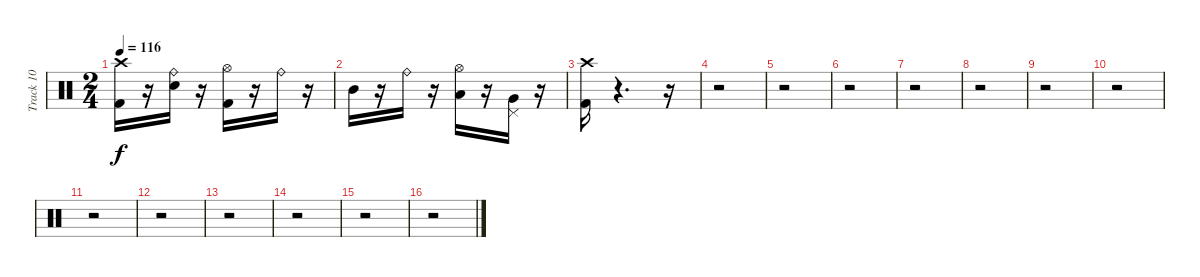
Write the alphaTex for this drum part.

\track ("Track 10" "Track 10") {instrument percussion}
\staff {score}
\articulation defaults
\ts (2 4)
\tempo 116
\clef neutral
\ks c
("Crash high (hit)" "Kick (hit) 2").16{dy f} r.16 ("Ride (bell)" "Electric Snare (hit)").16 r.16 ("Hi-Hat (open)" "Kick (hit) 2").16 r.16 "Ride (bell)".16 r.16 |
"Mid Tom (hit)".16 r.16 "Ride (bell)".16 r.16 ("Low Tom (hit)" "Hi-Hat (open)").16 r.16 ("Pedal Hi-Hat (hit)" "Very Low Tom (hit)").16 r.16 |
("Crash high (hit)" "Kick (hit) 2").16 r.4{d} r.16 |
r.2 |
r.2 |
r.2 |
r.2 |
r.2 |
r.2 |
r.2 |
r.2 |
r.2 |
r.2 |
r.2 |
r.2 |
r.2
